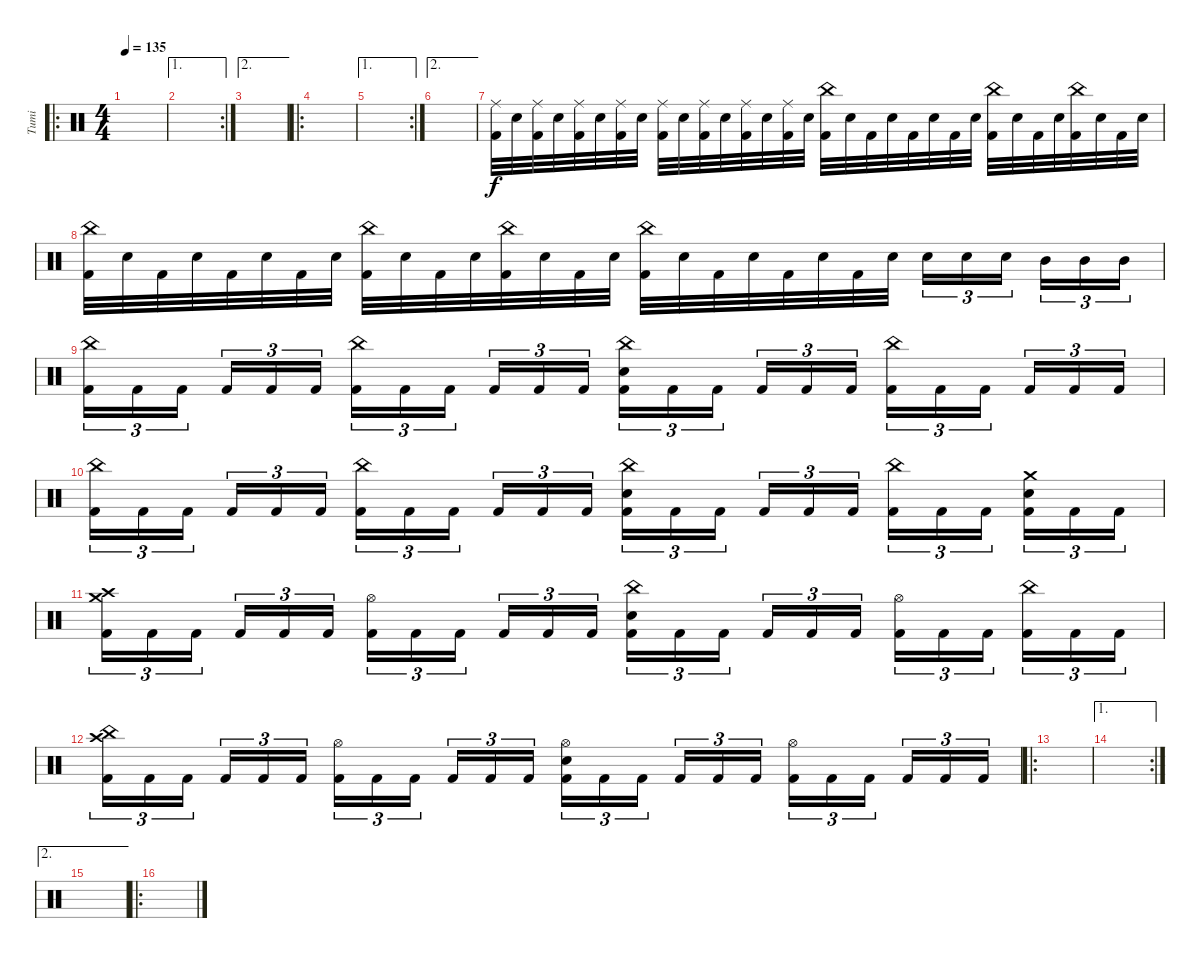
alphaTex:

\track ("Tumi" "Tumi") {instrument percussion}
\staff {score}
\articulation defaults
\ro
\ts (4 4)
\tempo 135
\clef neutral
\ks c
|
\ae 1
\rc 2
|
\ae 2
|
\ro
|
\ae 1
\rc 2
|
\ae 2
|
("Kick (hit) 2" "Ride (middle)").32 "Electric Snare (hit)".32 ("Kick (hit) 2" "Ride (middle)").32 "Electric Snare (hit)".32 ("Kick (hit) 2" "Ride (middle)").32 "Electric Snare (hit)".32 ("Kick (hit) 2" "Ride (middle)").32 "Electric Snare (hit)".32 ("Kick (hit) 2" "Ride (middle)").32 "Electric Snare (hit)".32 ("Kick (hit) 2" "Ride (middle)").32 "Electric Snare (hit)".32 ("Kick (hit) 2" "Ride (middle)").32 "Electric Snare (hit)".32 ("Kick (hit) 2" "Ride (middle)").32 "Electric Snare (hit)".32 ("China (hit)" "Kick (hit) 2").32 "Electric Snare (hit)".32 "Kick (hit) 2".32 "Electric Snare (hit)".32 "Kick (hit) 2".32 "Electric Snare (hit)".32 "Kick (hit) 2".32 "Electric Snare (hit)".32 ("China (hit)" "Kick (hit) 2").32 "Electric Snare (hit)".32 "Kick (hit) 2".32 "Electric Snare (hit)".32 ("China (hit)" "Kick (hit) 2").32 "Electric Snare (hit)".32 "Kick (hit) 2".32 "Electric Snare (hit)".32 |
("China (hit)" "Kick (hit) 2").32 "Electric Snare (hit)".32 "Kick (hit) 2".32 "Electric Snare (hit)".32 "Kick (hit) 2".32 "Electric Snare (hit)".32 "Kick (hit) 2".32 "Electric Snare (hit)".32 ("China (hit)" "Kick (hit) 2").32 "Electric Snare (hit)".32 "Kick (hit) 2".32 "Electric Snare (hit)".32 ("China (hit)" "Kick (hit) 2").32 "Electric Snare (hit)".32 "Kick (hit) 2".32 "Electric Snare (hit)".32 ("China (hit)" "Kick (hit) 2").32 "Electric Snare (hit)".32 "Kick (hit) 2".32 "Electric Snare (hit)".32 "Kick (hit) 2".32 "Electric Snare (hit)".32 "Kick (hit) 2".32 "Electric Snare (hit)".32 "Electric Snare (hit)".16{tu (3 2)} "Electric Snare (hit)".16{tu (3 2)} "Electric Snare (hit)".16{tu (3 2) beam splitsecondary} "Mid Tom (hit)".16{tu (3 2)} "Mid Tom (hit)".16{tu (3 2)} "Mid Tom (hit)".16{tu (3 2)} |
("China (hit)" "Kick (hit) 2").16{tu (3 2)} "Kick (hit) 2".16{tu (3 2)} "Kick (hit) 2".16{tu (3 2) beam splitsecondary} "Kick (hit) 2".16{tu (3 2)} "Kick (hit) 2".16{tu (3 2)} "Kick (hit) 2".16{tu (3 2)} ("China (hit)" "Kick (hit) 2").16{tu (3 2)} "Kick (hit) 2".16{tu (3 2)} "Kick (hit) 2".16{tu (3 2) beam splitsecondary} "Kick (hit) 2".16{tu (3 2)} "Kick (hit) 2".16{tu (3 2)} "Kick (hit) 2".16{tu (3 2)} ("China (hit)" "Electric Snare (hit)" "Kick (hit) 2").16{tu (3 2)} "Kick (hit) 2".16{tu (3 2)} "Kick (hit) 2".16{tu (3 2) beam splitsecondary} "Kick (hit) 2".16{tu (3 2)} "Kick (hit) 2".16{tu (3 2)} "Kick (hit) 2".16{tu (3 2)} ("China (hit)" "Kick (hit) 2").16{tu (3 2)} "Kick (hit) 2".16{tu (3 2)} "Kick (hit) 2".16{tu (3 2) beam splitsecondary} "Kick (hit) 2".16{tu (3 2)} "Kick (hit) 2".16{tu (3 2)} "Kick (hit) 2".16{tu (3 2)} |
("China (hit)" "Kick (hit) 2").16{tu (3 2)} "Kick (hit) 2".16{tu (3 2)} "Kick (hit) 2".16{tu (3 2) beam splitsecondary} "Kick (hit) 2".16{tu (3 2)} "Kick (hit) 2".16{tu (3 2)} "Kick (hit) 2".16{tu (3 2)} ("China (hit)" "Kick (hit) 2").16{tu (3 2)} "Kick (hit) 2".16{tu (3 2)} "Kick (hit) 2".16{tu (3 2) beam splitsecondary} "Kick (hit) 2".16{tu (3 2)} "Kick (hit) 2".16{tu (3 2)} "Kick (hit) 2".16{tu (3 2)} ("China (hit)" "Electric Snare (hit)" "Kick (hit) 2").16{tu (3 2)} "Kick (hit) 2".16{tu (3 2)} "Kick (hit) 2".16{tu (3 2) beam splitsecondary} "Kick (hit) 2".16{tu (3 2)} "Kick (hit) 2".16{tu (3 2)} "Kick (hit) 2".16{tu (3 2)} ("China (hit)" "Kick (hit) 2").16{tu (3 2)} "Kick (hit) 2".16{tu (3 2)} "Kick (hit) 2".16{tu (3 2) beam splitsecondary} ("Crash medium (hit)" "Electric Snare (hit)" "Kick (hit) 2").16{tu (3 2)} "Kick (hit) 2".16{tu (3 2)} "Kick (hit) 2".16{tu (3 2)} |
("Crash high (hit)" "Crash medium (hit)" "Kick (hit) 2").16{tu (3 2)} "Kick (hit) 2".16{tu (3 2)} "Kick (hit) 2".16{tu (3 2) beam splitsecondary} "Kick (hit) 2".16{tu (3 2)} "Kick (hit) 2".16{tu (3 2)} "Kick (hit) 2".16{tu (3 2)} ("Hi-Hat (open)" "Kick (hit) 2").16{tu (3 2)} "Kick (hit) 2".16{tu (3 2)} "Kick (hit) 2".16{tu (3 2) beam splitsecondary} "Kick (hit) 2".16{tu (3 2)} "Kick (hit) 2".16{tu (3 2)} "Kick (hit) 2".16{tu (3 2)} ("China (hit)" "Electric Snare (hit)" "Kick (hit) 2").16{tu (3 2)} "Kick (hit) 2".16{tu (3 2)} "Kick (hit) 2".16{tu (3 2) beam splitsecondary} "Kick (hit) 2".16{tu (3 2)} "Kick (hit) 2".16{tu (3 2)} "Kick (hit) 2".16{tu (3 2)} ("Hi-Hat (open)" "Kick (hit) 2").16{tu (3 2)} "Kick (hit) 2".16{tu (3 2)} "Kick (hit) 2".16{tu (3 2) beam splitsecondary} ("China (hit)" "Kick (hit) 2").16{tu (3 2)} "Kick (hit) 2".16{tu (3 2)} "Kick (hit) 2".16{tu (3 2)} |
("China (hit)" "Crash high (hit)" "Kick (hit) 2").16{tu (3 2)} "Kick (hit) 2".16{tu (3 2)} "Kick (hit) 2".16{tu (3 2) beam splitsecondary} "Kick (hit) 2".16{tu (3 2)} "Kick (hit) 2".16{tu (3 2)} "Kick (hit) 2".16{tu (3 2)} ("Hi-Hat (open)" "Kick (hit) 2").16{tu (3 2)} "Kick (hit) 2".16{tu (3 2)} "Kick (hit) 2".16{tu (3 2) beam splitsecondary} "Kick (hit) 2".16{tu (3 2)} "Kick (hit) 2".16{tu (3 2)} "Kick (hit) 2".16{tu (3 2)} ("Hi-Hat (open)" "Electric Snare (hit)" "Kick (hit) 2").16{tu (3 2)} "Kick (hit) 2".16{tu (3 2)} "Kick (hit) 2".16{tu (3 2) beam splitsecondary} "Kick (hit) 2".16{tu (3 2)} "Kick (hit) 2".16{tu (3 2)} "Kick (hit) 2".16{tu (3 2)} ("Hi-Hat (open)" "Kick (hit) 2").16{tu (3 2)} "Kick (hit) 2".16{tu (3 2)} "Kick (hit) 2".16{tu (3 2) beam splitsecondary} "Kick (hit) 2".16{tu (3 2)} "Kick (hit) 2".16{tu (3 2)} "Kick (hit) 2".16{tu (3 2)} |
\ro
|
\ae 1
\rc 2
|
\ae 2
|
\ro
